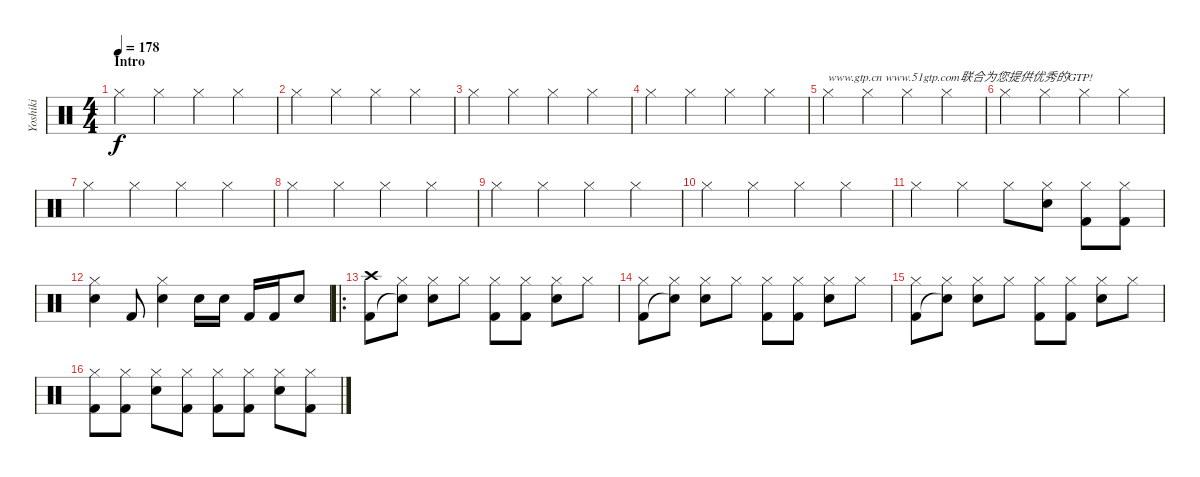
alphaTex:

\track ("Yoshiki" "Yoshiki") {instrument percussion}
\staff {score}
\articulation defaults
\ts (4 4)
\section ("" "Intro")
\tempo 178
\clef neutral
\ks c "Hi-Hat (closed)".4{dy f} "Hi-Hat (closed)".4 "Hi-Hat (closed)".4 "Hi-Hat (closed)".4
|
"Hi-Hat (closed)".4 "Hi-Hat (closed)".4 "Hi-Hat (closed)".4 "Hi-Hat (closed)".4 |
"Hi-Hat (closed)".4 "Hi-Hat (closed)".4 "Hi-Hat (closed)".4 "Hi-Hat (closed)".4 |
"Hi-Hat (closed)".4 "Hi-Hat (closed)".4 "Hi-Hat (closed)".4 "Hi-Hat (closed)".4 |
"Hi-Hat (closed)".4{txt "www.gtp.cn www.51gtp.com联合为您提供优秀的GTP!"} "Hi-Hat (closed)".4 "Hi-Hat (closed)".4 "Hi-Hat (closed)".4 |
"Hi-Hat (closed)".4 "Hi-Hat (closed)".4 "Hi-Hat (closed)".4 "Hi-Hat (closed)".4 |
"Hi-Hat (closed)".4 "Hi-Hat (closed)".4 "Hi-Hat (closed)".4 "Hi-Hat (closed)".4 |
"Hi-Hat (closed)".4 "Hi-Hat (closed)".4 "Hi-Hat (closed)".4 "Hi-Hat (closed)".4 |
"Hi-Hat (closed)".4 "Hi-Hat (closed)".4 "Hi-Hat (closed)".4 "Hi-Hat (closed)".4 |
"Hi-Hat (closed)".4 "Hi-Hat (closed)".4 "Hi-Hat (closed)".4 "Hi-Hat (closed)".4 |
"Hi-Hat (closed)".4 "Hi-Hat (closed)".4 "Hi-Hat (closed)".8 ("Hi-Hat (closed)" "Snare (hit) 2").8 ("Hi-Hat (closed)" "Kick (hit) 2").8 ("Hi-Hat (closed)" "Kick (hit) 2").8 |
("Hi-Hat (closed)" "Snare (hit) 2").4 "Kick (hit) 2".8 ("Hi-Hat (closed)" "Snare (hit) 2").4 "Snare (hit) 2".16 "Snare (hit) 2".16 "Kick (hit) 2".16 "Kick (hit) 2".16 "Snare (hit) 2".8 |
\ro
("Crash high (hit)" "Kick (hit) 2").8 ("Hi-Hat (closed)" "Snare (hit)"{t}).8 ("Hi-Hat (closed)" "Snare (hit) 2").8 "Hi-Hat (closed)".8 ("Hi-Hat (closed)" "Kick (hit) 2").8 ("Hi-Hat (closed)" "Kick (hit) 2").8 ("Hi-Hat (closed)" "Snare (hit) 2").8 "Hi-Hat (closed)".8 |
("Hi-Hat (closed)" "Kick (hit) 2").8 ("Hi-Hat (closed)" "Snare (hit)"{t}).8 ("Hi-Hat (closed)" "Snare (hit) 2").8 "Hi-Hat (closed)".8 ("Hi-Hat (closed)" "Kick (hit) 2").8 ("Hi-Hat (closed)" "Kick (hit) 2").8 ("Hi-Hat (closed)" "Snare (hit) 2").8 "Hi-Hat (closed)".8 |
("Hi-Hat (closed)" "Kick (hit) 2").8 ("Hi-Hat (closed)" "Snare (hit)"{t}).8 ("Hi-Hat (closed)" "Snare (hit) 2").8 "Hi-Hat (closed)".8 ("Hi-Hat (closed)" "Kick (hit) 2").8 ("Hi-Hat (closed)" "Kick (hit) 2").8 ("Hi-Hat (closed)" "Snare (hit) 2").8 "Hi-Hat (closed)".8 |
("Hi-Hat (closed)" "Kick (hit) 2").8 ("Hi-Hat (closed)" "Kick (hit) 2").8 ("Hi-Hat (closed)" "Snare (hit) 2").8 ("Hi-Hat (closed)" "Kick (hit) 2").8 ("Hi-Hat (closed)" "Kick (hit) 2").8 ("Hi-Hat (closed)" "Kick (hit) 2").8 ("Hi-Hat (closed)" "Snare (hit) 2").8 ("Hi-Hat (closed)" "Kick (hit) 2").8
